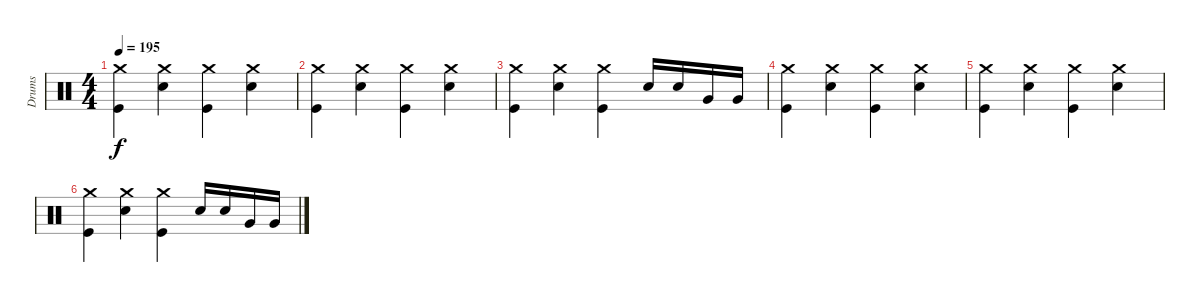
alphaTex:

\track ("Drums" "Drums") {instrument percussion}
\staff {score}
\articulation defaults
\ts (4 4)
\tempo 195
\clef neutral
\ks c
("Crash medium (hit)" "Kick (hit)").4{dy f} ("Crash medium (hit)" "Electric Snare (hit)").4 ("Crash medium (hit)" "Kick (hit)").4 ("Crash medium (hit)" "Electric Snare (hit)").4 |
("Crash medium (hit)" "Kick (hit)").4 ("Crash medium (hit)" "Electric Snare (hit)").4 ("Crash medium (hit)" "Kick (hit)").4 ("Crash medium (hit)" "Electric Snare (hit)").4 |
("Crash medium (hit)" "Kick (hit)").4 ("Crash medium (hit)" "Electric Snare (hit)").4 ("Crash medium (hit)" "Kick (hit)").4 "Electric Snare (hit)".16 "Electric Snare (hit)".16 "Very Low Tom (hit)".16 "Very Low Tom (hit)".16 |
("Crash medium (hit)" "Kick (hit)").4 ("Crash medium (hit)" "Electric Snare (hit)").4 ("Crash medium (hit)" "Kick (hit)").4 ("Crash medium (hit)" "Electric Snare (hit)").4 |
("Crash medium (hit)" "Kick (hit)").4 ("Crash medium (hit)" "Electric Snare (hit)").4 ("Crash medium (hit)" "Kick (hit)").4 ("Crash medium (hit)" "Electric Snare (hit)").4 |
("Crash medium (hit)" "Kick (hit)").4 ("Crash medium (hit)" "Electric Snare (hit)").4 ("Crash medium (hit)" "Kick (hit)").4 "Electric Snare (hit)".16 "Electric Snare (hit)".16 "Very Low Tom (hit)".16 "Very Low Tom (hit)".16
